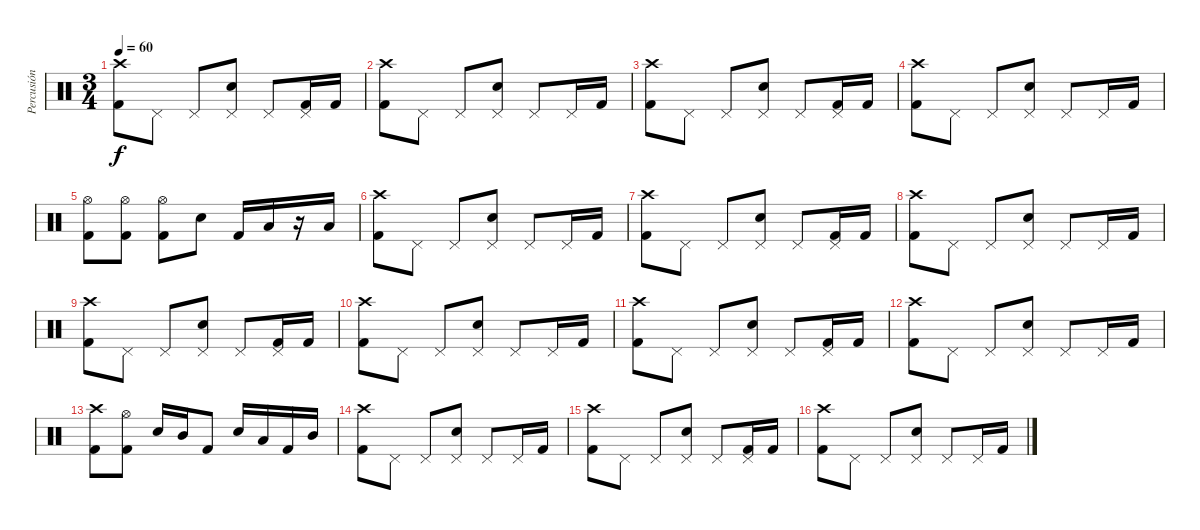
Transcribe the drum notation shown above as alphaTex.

\track ("Percusión" "Percusión") {instrument percussion}
\staff {score}
\articulation defaults
\ts (3 4)
\tempo 60
\clef neutral
\ks c
("Crash high (hit)" "Kick (hit) 2").8{dy f} "Pedal Hi-Hat (hit)".8 "Pedal Hi-Hat (hit)".8 ("Pedal Hi-Hat (hit)" "Snare (hit) 2").8 "Pedal Hi-Hat (hit)".8 ("Pedal Hi-Hat (hit)" "Kick (hit) 2").16 "Kick (hit) 2".16 |
("Kick (hit) 2" "Crash high (hit)").8 "Pedal Hi-Hat (hit)".8 "Pedal Hi-Hat (hit)".8 ("Pedal Hi-Hat (hit)" "Snare (hit) 2").8 "Pedal Hi-Hat (hit)".8 "Pedal Hi-Hat (hit)".16 "Kick (hit) 2".16 |
("Crash high (hit)" "Kick (hit) 2").8 "Pedal Hi-Hat (hit)".8 "Pedal Hi-Hat (hit)".8 ("Pedal Hi-Hat (hit)" "Snare (hit) 2").8 "Pedal Hi-Hat (hit)".8 ("Pedal Hi-Hat (hit)" "Kick (hit) 2").16 "Kick (hit) 2".16 |
("Kick (hit) 2" "Crash high (hit)").8 "Pedal Hi-Hat (hit)".8 "Pedal Hi-Hat (hit)".8 ("Pedal Hi-Hat (hit)" "Snare (hit) 2").8 "Pedal Hi-Hat (hit)".8 "Pedal Hi-Hat (hit)".16 "Kick (hit) 2".16 |
("Hi-Hat (open)" "Kick (hit) 2").8 ("Hi-Hat (open)" "Kick (hit) 2").8 ("Hi-Hat (open)" "Kick (hit) 2").8 "Snare (hit) 2".8 "Kick (hit) 2".16 "Low Tom (hit)".16 r.16 "Low Tom (hit)".16 |
("Kick (hit) 2" "Crash high (hit)").8 "Pedal Hi-Hat (hit)".8 "Pedal Hi-Hat (hit)".8 ("Pedal Hi-Hat (hit)" "Snare (hit) 2").8 "Pedal Hi-Hat (hit)".8 "Pedal Hi-Hat (hit)".16 "Kick (hit) 2".16 |
("Crash high (hit)" "Kick (hit) 2").8 "Pedal Hi-Hat (hit)".8 "Pedal Hi-Hat (hit)".8 ("Pedal Hi-Hat (hit)" "Snare (hit) 2").8 "Pedal Hi-Hat (hit)".8 ("Pedal Hi-Hat (hit)" "Kick (hit) 2").16 "Kick (hit) 2".16 |
("Kick (hit) 2" "Crash high (hit)").8 "Pedal Hi-Hat (hit)".8 "Pedal Hi-Hat (hit)".8 ("Pedal Hi-Hat (hit)" "Snare (hit) 2").8 "Pedal Hi-Hat (hit)".8 "Pedal Hi-Hat (hit)".16 "Kick (hit) 2".16 |
("Crash high (hit)" "Kick (hit) 2").8 "Pedal Hi-Hat (hit)".8 "Pedal Hi-Hat (hit)".8 ("Pedal Hi-Hat (hit)" "Snare (hit) 2").8 "Pedal Hi-Hat (hit)".8 ("Pedal Hi-Hat (hit)" "Kick (hit) 2").16 "Kick (hit) 2".16 |
("Kick (hit) 2" "Crash high (hit)").8 "Pedal Hi-Hat (hit)".8 "Pedal Hi-Hat (hit)".8 ("Pedal Hi-Hat (hit)" "Snare (hit) 2").8 "Pedal Hi-Hat (hit)".8 "Pedal Hi-Hat (hit)".16 "Kick (hit) 2".16 |
("Crash high (hit)" "Kick (hit) 2").8 "Pedal Hi-Hat (hit)".8 "Pedal Hi-Hat (hit)".8 ("Pedal Hi-Hat (hit)" "Snare (hit) 2").8 "Pedal Hi-Hat (hit)".8 ("Pedal Hi-Hat (hit)" "Kick (hit) 2").16 "Kick (hit) 2".16 |
("Kick (hit) 2" "Crash high (hit)").8 "Pedal Hi-Hat (hit)".8 "Pedal Hi-Hat (hit)".8 ("Pedal Hi-Hat (hit)" "Snare (hit) 2").8 "Pedal Hi-Hat (hit)".8 "Pedal Hi-Hat (hit)".16 "Kick (hit) 2".16 |
("Crash high (hit)" "Kick (hit) 2").8 ("Hi-Hat (open)" "Kick (hit) 2").8 "Snare (hit) 2".16 "Mid Tom (hit)".16 "Kick (hit) 2".8 "Snare (hit) 2".16 "Low Tom (hit)".16 "Kick (hit) 2".16 "Mid Tom (hit)".16 |
("Kick (hit) 2" "Crash high (hit)").8 "Pedal Hi-Hat (hit)".8 "Pedal Hi-Hat (hit)".8 ("Pedal Hi-Hat (hit)" "Snare (hit) 2").8 "Pedal Hi-Hat (hit)".8 "Pedal Hi-Hat (hit)".16 "Kick (hit) 2".16 |
("Crash high (hit)" "Kick (hit) 2").8 "Pedal Hi-Hat (hit)".8 "Pedal Hi-Hat (hit)".8 ("Pedal Hi-Hat (hit)" "Snare (hit) 2").8 "Pedal Hi-Hat (hit)".8 ("Pedal Hi-Hat (hit)" "Kick (hit) 2").16 "Kick (hit) 2".16 |
("Kick (hit) 2" "Crash high (hit)").8 "Pedal Hi-Hat (hit)".8 "Pedal Hi-Hat (hit)".8 ("Pedal Hi-Hat (hit)" "Snare (hit) 2").8 "Pedal Hi-Hat (hit)".8 "Pedal Hi-Hat (hit)".16 "Kick (hit) 2".16
